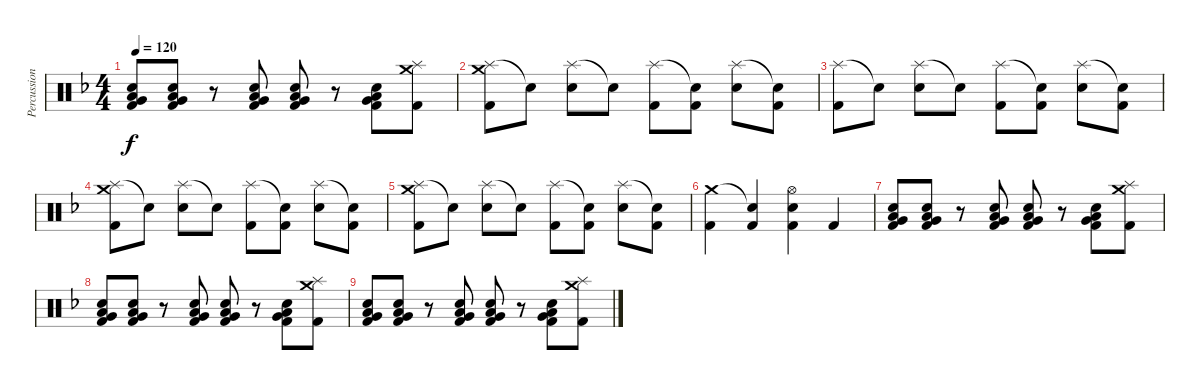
\track ("Percussion" "Percussion") {instrument percussion}
\staff {score}
\articulation defaults
\ts (4 4)
\tempo 120
\clef neutral
\ks f
("Electric Snare (hit)" "Low Floor Tom (hit)" "Very Low Tom (hit)" "Kick (hit) 2").8{dy f} ("Electric Snare (hit)" "Low Floor Tom (hit)" "Very Low Tom (hit)" "Kick (hit) 2").8 r.8 ("Electric Snare (hit)" "Low Floor Tom (hit)" "Very Low Tom (hit)" "Kick (hit) 2").8 ("Electric Snare (hit)" "Low Floor Tom (hit)" "Very Low Tom (hit)" "Kick (hit) 2").8 r.8 ("Electric Snare (hit)" "Low Floor Tom (hit)" "Very Low Tom (hit)" "Kick (hit) 2").8 ("Splash (hit)" "Crash medium (hit)" "Kick (hit) 2").8 |
("Splash (hit)" "Crash medium (hit)" "Kick (hit) 2").8 "Snare (hit)"{t}.8 ("Splash (hit)" "Electric Snare (hit)").8 "Snare (hit)"{t}.8 ("Splash (hit)" "Kick (hit) 2").8 ("Snare (hit)"{t} "Kick (hit) 2").8 ("Splash (hit)" "Electric Snare (hit)").8 ("Snare (hit)"{t} "Kick (hit) 2").8 |
("Splash (hit)" "Kick (hit) 2").8 "Snare (hit)"{t}.8 ("Splash (hit)" "Electric Snare (hit)").8 "Snare (hit)"{t}.8 ("Splash (hit)" "Kick (hit) 2").8 ("Snare (hit)"{t} "Kick (hit) 2").8 ("Splash (hit)" "Electric Snare (hit)").8 ("Snare (hit)"{t} "Kick (hit) 2").8 |
("Splash (hit)" "Crash medium (hit)" "Kick (hit) 2").8 "Snare (hit)"{t}.8 ("Splash (hit)" "Electric Snare (hit)").8 "Snare (hit)"{t}.8 ("Splash (hit)" "Kick (hit) 2").8 ("Snare (hit)"{t} "Kick (hit) 2").8 ("Splash (hit)" "Electric Snare (hit)").8 ("Snare (hit)"{t} "Kick (hit) 2").8 |
("Splash (hit)" "Crash medium (hit)" "Kick (hit) 2").8 "Snare (hit)"{t}.8 ("Splash (hit)" "Electric Snare (hit)").8 "Snare (hit)"{t}.8 ("Splash (hit)" "Kick (hit) 2").8 ("Snare (hit)"{t} "Kick (hit) 2").8 ("Splash (hit)" "Electric Snare (hit)").8 ("Snare (hit)"{t} "Kick (hit) 2").8 |
("Crash medium (hit)" "Kick (hit) 2").4 ("Snare (hit)"{t} "Kick (hit) 2").4 ("Hi-Hat (open)" "Electric Snare (hit)" "Kick (hit) 2").4 "Kick (hit) 2".4 |
("Electric Snare (hit)" "Low Floor Tom (hit)" "Very Low Tom (hit)" "Kick (hit) 2").8 ("Electric Snare (hit)" "Low Floor Tom (hit)" "Very Low Tom (hit)" "Kick (hit) 2").8 r.8 ("Electric Snare (hit)" "Low Floor Tom (hit)" "Very Low Tom (hit)" "Kick (hit) 2").8 ("Electric Snare (hit)" "Low Floor Tom (hit)" "Very Low Tom (hit)" "Kick (hit) 2").8 r.8 ("Electric Snare (hit)" "Low Floor Tom (hit)" "Very Low Tom (hit)" "Kick (hit) 2").8 ("Splash (hit)" "Crash medium (hit)" "Kick (hit) 2").8 |
("Electric Snare (hit)" "Low Floor Tom (hit)" "Very Low Tom (hit)" "Kick (hit) 2").8 ("Electric Snare (hit)" "Low Floor Tom (hit)" "Very Low Tom (hit)" "Kick (hit) 2").8 r.8 ("Electric Snare (hit)" "Low Floor Tom (hit)" "Very Low Tom (hit)" "Kick (hit) 2").8 ("Electric Snare (hit)" "Low Floor Tom (hit)" "Very Low Tom (hit)" "Kick (hit) 2").8 r.8 ("Electric Snare (hit)" "Low Floor Tom (hit)" "Very Low Tom (hit)" "Kick (hit) 2").8 ("Splash (hit)" "Crash medium (hit)" "Kick (hit) 2").8 |
("Electric Snare (hit)" "Low Floor Tom (hit)" "Very Low Tom (hit)" "Kick (hit) 2").8 ("Electric Snare (hit)" "Low Floor Tom (hit)" "Very Low Tom (hit)" "Kick (hit) 2").8 r.8 ("Electric Snare (hit)" "Low Floor Tom (hit)" "Very Low Tom (hit)" "Kick (hit) 2").8 ("Electric Snare (hit)" "Low Floor Tom (hit)" "Very Low Tom (hit)" "Kick (hit) 2").8 r.8 ("Electric Snare (hit)" "Low Floor Tom (hit)" "Very Low Tom (hit)" "Kick (hit) 2").8 ("Splash (hit)" "Crash medium (hit)" "Kick (hit) 2").8
